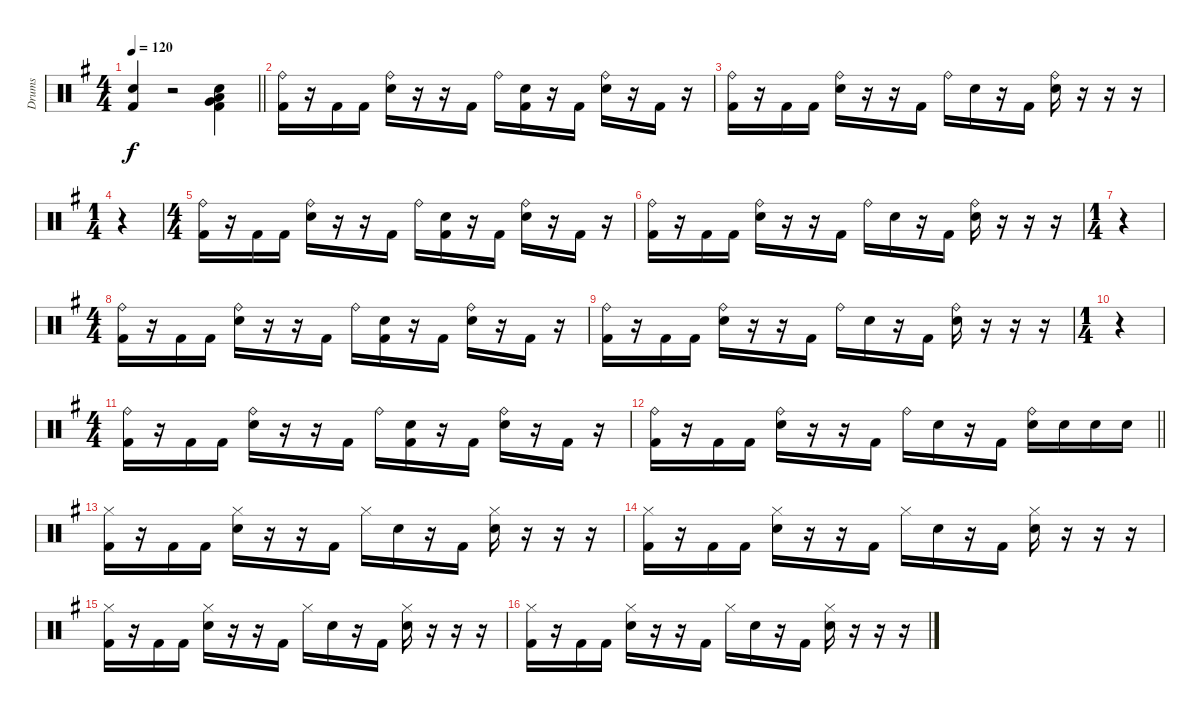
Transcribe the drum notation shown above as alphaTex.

\track ("Drums" "Drums") {instrument percussion}
\staff {score}
\articulation defaults
\ts (4 4)
\tempo 120
\clef neutral
\barLineRight lightlight
\ks g
("Electric Snare (hit)" "Kick (hit) 2").4{dy f} r.2 ("Electric Snare (hit)" "Very Low Tom (hit)" "Low Floor Tom (hit)" "Kick (hit) 2").4 |
("Ride (bell)" "Kick (hit) 2").16 r.16 "Kick (hit) 2".16 "Kick (hit) 2".16 ("Ride (bell)" "Electric Snare (hit)").16 r.16 r.16 "Kick (hit) 2".16 "Ride (bell)".16 ("Electric Snare (hit)" "Kick (hit) 2").16 r.16 "Kick (hit) 2".16 ("Ride (bell)" "Electric Snare (hit)").16 r.16 "Kick (hit) 2".16 r.16 |
("Ride (bell)" "Kick (hit) 2").16 r.16 "Kick (hit) 2".16 "Kick (hit) 2".16 ("Ride (bell)" "Electric Snare (hit)").16 r.16 r.16 "Kick (hit) 2".16 "Ride (bell)".16 "Electric Snare (hit)".16 r.16 "Kick (hit) 2".16 ("Ride (bell)" "Electric Snare (hit)").16 r.16 r.16 r.16 |
\ts (1 4)
r.4 |
\ts (4 4)
("Ride (bell)" "Kick (hit) 2").16 r.16 "Kick (hit) 2".16 "Kick (hit) 2".16 ("Ride (bell)" "Electric Snare (hit)").16 r.16 r.16 "Kick (hit) 2".16 "Ride (bell)".16 ("Electric Snare (hit)" "Kick (hit) 2").16 r.16 "Kick (hit) 2".16 ("Ride (bell)" "Electric Snare (hit)").16 r.16 "Kick (hit) 2".16 r.16 |
("Ride (bell)" "Kick (hit) 2").16 r.16 "Kick (hit) 2".16 "Kick (hit) 2".16 ("Ride (bell)" "Electric Snare (hit)").16 r.16 r.16 "Kick (hit) 2".16 "Ride (bell)".16 "Electric Snare (hit)".16 r.16 "Kick (hit) 2".16 ("Ride (bell)" "Electric Snare (hit)").16 r.16 r.16 r.16 |
\ts (1 4)
r.4 |
\ts (4 4)
("Ride (bell)" "Kick (hit) 2").16 r.16 "Kick (hit) 2".16 "Kick (hit) 2".16 ("Ride (bell)" "Electric Snare (hit)").16 r.16 r.16 "Kick (hit) 2".16 "Ride (bell)".16 ("Electric Snare (hit)" "Kick (hit) 2").16 r.16 "Kick (hit) 2".16 ("Ride (bell)" "Electric Snare (hit)").16 r.16 "Kick (hit) 2".16 r.16 |
("Ride (bell)" "Kick (hit) 2").16 r.16 "Kick (hit) 2".16 "Kick (hit) 2".16 ("Ride (bell)" "Electric Snare (hit)").16 r.16 r.16 "Kick (hit) 2".16 "Ride (bell)".16 "Electric Snare (hit)".16 r.16 "Kick (hit) 2".16 ("Ride (bell)" "Electric Snare (hit)").16 r.16 r.16 r.16 |
\ts (1 4)
r.4 |
\ts (4 4)
("Ride (bell)" "Kick (hit) 2").16 r.16 "Kick (hit) 2".16 "Kick (hit) 2".16 ("Ride (bell)" "Electric Snare (hit)").16 r.16 r.16 "Kick (hit) 2".16 "Ride (bell)".16 ("Electric Snare (hit)" "Kick (hit) 2").16 r.16 "Kick (hit) 2".16 ("Ride (bell)" "Electric Snare (hit)").16 r.16 "Kick (hit) 2".16 r.16 |
\barLineRight lightlight
("Ride (bell)" "Kick (hit) 2").16 r.16 "Kick (hit) 2".16 "Kick (hit) 2".16 ("Ride (bell)" "Electric Snare (hit)").16 r.16 r.16 "Kick (hit) 2".16 "Ride (bell)".16 "Electric Snare (hit)".16 r.16 "Kick (hit) 2".16 ("Ride (bell)" "Electric Snare (hit)").16 "Electric Snare (hit)".16 "Electric Snare (hit)".16 "Electric Snare (hit)".16 |
("Hi-Hat (closed)" "Kick (hit) 2").16 r.16 "Kick (hit) 2".16 "Kick (hit) 2".16 ("Hi-Hat (closed)" "Electric Snare (hit)").16 r.16 r.16 "Kick (hit) 2".16 "Hi-Hat (closed)".16 "Electric Snare (hit)".16 r.16 "Kick (hit) 2".16 ("Hi-Hat (closed)" "Electric Snare (hit)").16 r.16 r.16 r.16 |
("Hi-Hat (closed)" "Kick (hit) 2").16 r.16 "Kick (hit) 2".16 "Kick (hit) 2".16 ("Hi-Hat (closed)" "Electric Snare (hit)").16 r.16 r.16 "Kick (hit) 2".16 "Hi-Hat (closed)".16 "Electric Snare (hit)".16 r.16 "Kick (hit) 2".16 ("Hi-Hat (closed)" "Electric Snare (hit)").16 r.16 r.16 r.16 |
("Hi-Hat (closed)" "Kick (hit) 2").16 r.16 "Kick (hit) 2".16 "Kick (hit) 2".16 ("Hi-Hat (closed)" "Electric Snare (hit)").16 r.16 r.16 "Kick (hit) 2".16 "Hi-Hat (closed)".16 "Electric Snare (hit)".16 r.16 "Kick (hit) 2".16 ("Hi-Hat (closed)" "Electric Snare (hit)").16 r.16 r.16 r.16 |
("Hi-Hat (closed)" "Kick (hit) 2").16 r.16 "Kick (hit) 2".16 "Kick (hit) 2".16 ("Hi-Hat (closed)" "Electric Snare (hit)").16 r.16 r.16 "Kick (hit) 2".16 "Hi-Hat (closed)".16 "Electric Snare (hit)".16 r.16 "Kick (hit) 2".16 ("Hi-Hat (closed)" "Electric Snare (hit)").16 r.16 r.16 r.16
